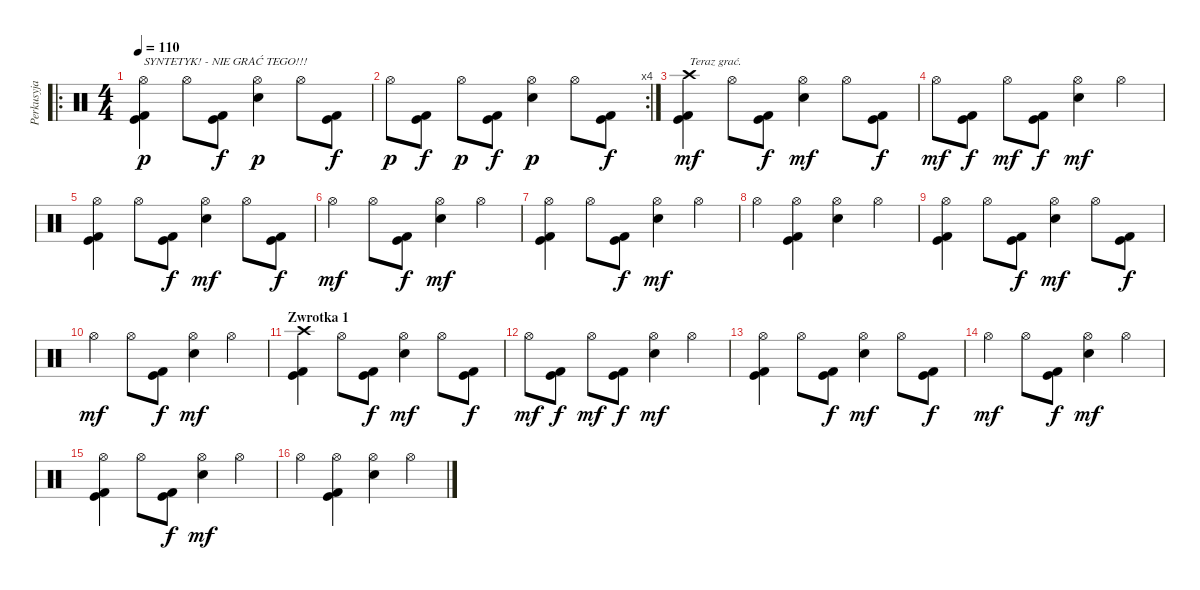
\track ("Perkusyja" "Perkusyja") {instrument percussion}
\staff {score}
\articulation defaults
\ro
\ts (4 4)
\tempo 110
\clef neutral
\ks c
("Hi-Hat (open)" "Kick (hit) 2" "Kick (hit)").4{txt "SYNTETYK! - NIE GRAĆ TEGO!!!" dy p volume 8} "Hi-Hat (open)".8 ("Kick (hit) 2" "Kick (hit)").8{dy f} ("Hi-Hat (open)" "Electric Snare (hit)").4{dy p} "Hi-Hat (open)".8 ("Kick (hit) 2" "Kick (hit)").8{dy f} |
\rc 4 "Hi-Hat (open)".8{dy p}
("Kick (hit)" "Kick (hit) 2").8{dy f} "Hi-Hat (open)".8{dy p} ("Kick (hit)" "Kick (hit) 2").8{dy f} ("Hi-Hat (open)" "Electric Snare (hit)").4{dy p} "Hi-Hat (open)".8 ("Kick (hit) 2" "Kick (hit)").8{dy f} |
("Crash high (hit)" "Kick (hit) 2" "Kick (hit)").4{txt "Teraz grać." dy mf volume 16} "Hi-Hat (open)".8 ("Kick (hit) 2" "Kick (hit)").8{dy f} ("Hi-Hat (open)" "Snare (hit) 2").4{dy mf} "Hi-Hat (open)".8 ("Kick (hit) 2" "Kick (hit)").8{dy f} |
"Hi-Hat (open)".8{dy mf} ("Kick (hit) 2" "Kick (hit)").8{dy f} "Hi-Hat (open)".8{dy mf} ("Kick (hit) 2" "Kick (hit)").8{dy f} ("Hi-Hat (open)" "Snare (hit) 2").4{dy mf} "Hi-Hat (open)".4 |
("Hi-Hat (open)" "Kick (hit) 2" "Kick (hit)").4 "Hi-Hat (open)".8 ("Kick (hit) 2" "Kick (hit)").8{dy f} ("Hi-Hat (open)" "Snare (hit) 2").4{dy mf} "Hi-Hat (open)".8 ("Kick (hit) 2" "Kick (hit)").8{dy f} |
"Hi-Hat (open)".4{dy mf} "Hi-Hat (open)".8 ("Kick (hit) 2" "Kick (hit)").8{dy f} ("Hi-Hat (open)" "Snare (hit) 2").4{dy mf} "Hi-Hat (open)".4 |
("Hi-Hat (open)" "Kick (hit) 2" "Kick (hit)").4 "Hi-Hat (open)".8 ("Kick (hit) 2" "Kick (hit)").8{dy f} ("Hi-Hat (open)" "Snare (hit) 2").4{dy mf} "Hi-Hat (open)".4 |
"Hi-Hat (open)".4 ("Hi-Hat (open)" "Kick (hit) 2" "Kick (hit)").4 ("Hi-Hat (open)" "Snare (hit) 2").4 "Hi-Hat (open)".4 |
("Hi-Hat (open)" "Kick (hit) 2" "Kick (hit)").4 "Hi-Hat (open)".8 ("Kick (hit) 2" "Kick (hit)").8{dy f} ("Hi-Hat (open)" "Snare (hit) 2").4{dy mf} "Hi-Hat (open)".8 ("Kick (hit) 2" "Kick (hit)").8{dy f} |
"Hi-Hat (open)".4{dy mf} "Hi-Hat (open)".8 ("Kick (hit) 2" "Kick (hit)").8{dy f} ("Hi-Hat (open)" "Snare (hit) 2").4{dy mf} "Hi-Hat (open)".4 |
\section ("" "Zwrotka 1")
("Crash high (hit)" "Kick (hit) 2" "Kick (hit)").4 "Hi-Hat (open)".8 ("Kick (hit) 2" "Kick (hit)").8{dy f} ("Hi-Hat (open)" "Snare (hit) 2").4{dy mf} "Hi-Hat (open)".8 ("Kick (hit) 2" "Kick (hit)").8{dy f} |
"Hi-Hat (open)".8{dy mf} ("Kick (hit) 2" "Kick (hit)").8{dy f} "Hi-Hat (open)".8{dy mf} ("Kick (hit) 2" "Kick (hit)").8{dy f} ("Hi-Hat (open)" "Snare (hit) 2").4{dy mf} "Hi-Hat (open)".4 |
("Hi-Hat (open)" "Kick (hit) 2" "Kick (hit)").4 "Hi-Hat (open)".8 ("Kick (hit) 2" "Kick (hit)").8{dy f} ("Hi-Hat (open)" "Snare (hit) 2").4{dy mf} "Hi-Hat (open)".8 ("Kick (hit) 2" "Kick (hit)").8{dy f} |
"Hi-Hat (open)".4{dy mf} "Hi-Hat (open)".8 ("Kick (hit) 2" "Kick (hit)").8{dy f} ("Hi-Hat (open)" "Snare (hit) 2").4{dy mf} "Hi-Hat (open)".4 |
("Hi-Hat (open)" "Kick (hit) 2" "Kick (hit)").4 "Hi-Hat (open)".8 ("Kick (hit) 2" "Kick (hit)").8{dy f} ("Hi-Hat (open)" "Snare (hit) 2").4{dy mf} "Hi-Hat (open)".4 |
"Hi-Hat (open)".4 ("Hi-Hat (open)" "Kick (hit) 2" "Kick (hit)").4 ("Hi-Hat (open)" "Snare (hit) 2").4 "Hi-Hat (open)".4
